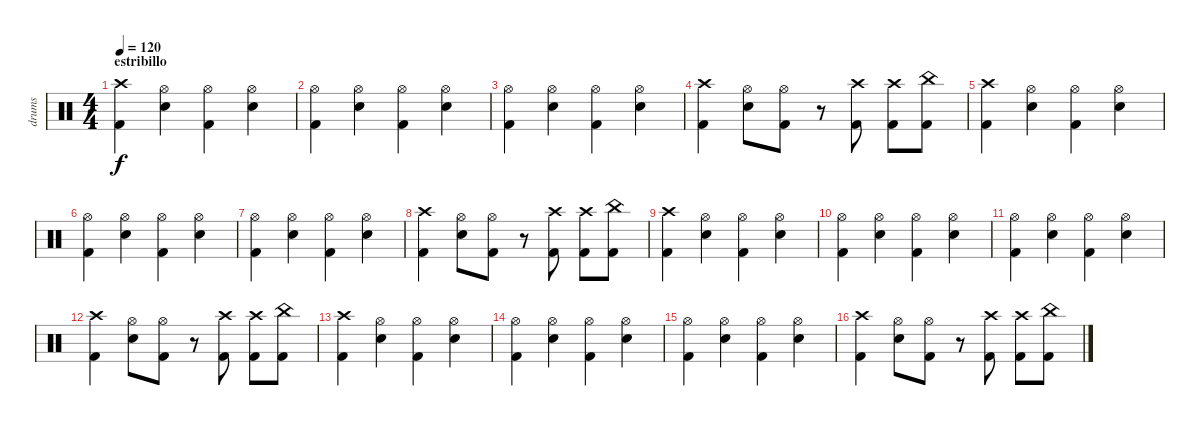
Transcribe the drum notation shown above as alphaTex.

\track ("drums" "drums") {instrument percussion}
\staff {score}
\articulation defaults
\ts (4 4)
\section ("" "estribillo")
\tempo 120
\clef neutral
\ks c
("Kick (hit) 2" "Crash high (hit)").4{dy f} ("Snare (hit) 2" "Hi-Hat (open)").4 ("Kick (hit) 2" "Hi-Hat (open)").4 ("Snare (hit) 2" "Hi-Hat (open)").4 |
("Kick (hit) 2" "Hi-Hat (open)").4 ("Snare (hit) 2" "Hi-Hat (open)").4 ("Kick (hit) 2" "Hi-Hat (open)").4 ("Snare (hit) 2" "Hi-Hat (open)").4 |
("Kick (hit) 2" "Hi-Hat (open)").4 ("Snare (hit) 2" "Hi-Hat (open)").4 ("Kick (hit) 2" "Hi-Hat (open)").4 ("Snare (hit) 2" "Hi-Hat (open)").4 |
("Kick (hit) 2" "Crash high (hit)").4 ("Snare (hit) 2" "Hi-Hat (open)").8 ("Kick (hit) 2" "Hi-Hat (open)").8 r.8 ("Kick (hit) 2" "Crash high (hit)").8 ("Kick (hit) 2" "Crash high (hit)").8 ("Kick (hit) 2" "China (hit)").8 |
("Kick (hit) 2" "Crash high (hit)").4 ("Snare (hit) 2" "Hi-Hat (open)").4 ("Kick (hit) 2" "Hi-Hat (open)").4 ("Snare (hit) 2" "Hi-Hat (open)").4 |
("Kick (hit) 2" "Hi-Hat (open)").4 ("Snare (hit) 2" "Hi-Hat (open)").4 ("Kick (hit) 2" "Hi-Hat (open)").4 ("Snare (hit) 2" "Hi-Hat (open)").4 |
("Kick (hit) 2" "Hi-Hat (open)").4 ("Snare (hit) 2" "Hi-Hat (open)").4 ("Kick (hit) 2" "Hi-Hat (open)").4 ("Snare (hit) 2" "Hi-Hat (open)").4 |
("Kick (hit) 2" "Crash high (hit)").4 ("Snare (hit) 2" "Hi-Hat (open)").8 ("Kick (hit) 2" "Hi-Hat (open)").8 r.8 ("Kick (hit) 2" "Crash high (hit)").8 ("Kick (hit) 2" "Crash high (hit)").8 ("Kick (hit) 2" "China (hit)").8 |
("Kick (hit) 2" "Crash high (hit)").4 ("Snare (hit) 2" "Hi-Hat (open)").4 ("Kick (hit) 2" "Hi-Hat (open)").4 ("Snare (hit) 2" "Hi-Hat (open)").4 |
("Kick (hit) 2" "Hi-Hat (open)").4 ("Snare (hit) 2" "Hi-Hat (open)").4 ("Kick (hit) 2" "Hi-Hat (open)").4 ("Snare (hit) 2" "Hi-Hat (open)").4 |
("Kick (hit) 2" "Hi-Hat (open)").4 ("Snare (hit) 2" "Hi-Hat (open)").4 ("Kick (hit) 2" "Hi-Hat (open)").4 ("Snare (hit) 2" "Hi-Hat (open)").4 |
("Kick (hit) 2" "Crash high (hit)").4 ("Snare (hit) 2" "Hi-Hat (open)").8 ("Kick (hit) 2" "Hi-Hat (open)").8 r.8 ("Kick (hit) 2" "Crash high (hit)").8 ("Kick (hit) 2" "Crash high (hit)").8 ("Kick (hit) 2" "China (hit)").8 |
("Kick (hit) 2" "Crash high (hit)").4 ("Snare (hit) 2" "Hi-Hat (open)").4 ("Kick (hit) 2" "Hi-Hat (open)").4 ("Snare (hit) 2" "Hi-Hat (open)").4 |
("Kick (hit) 2" "Hi-Hat (open)").4 ("Snare (hit) 2" "Hi-Hat (open)").4 ("Kick (hit) 2" "Hi-Hat (open)").4 ("Snare (hit) 2" "Hi-Hat (open)").4 |
("Kick (hit) 2" "Hi-Hat (open)").4 ("Snare (hit) 2" "Hi-Hat (open)").4 ("Kick (hit) 2" "Hi-Hat (open)").4 ("Snare (hit) 2" "Hi-Hat (open)").4 |
("Kick (hit) 2" "Crash high (hit)").4 ("Snare (hit) 2" "Hi-Hat (open)").8 ("Kick (hit) 2" "Hi-Hat (open)").8 r.8 ("Kick (hit) 2" "Crash high (hit)").8 ("Kick (hit) 2" "Crash high (hit)").8 ("Kick (hit) 2" "China (hit)").8
